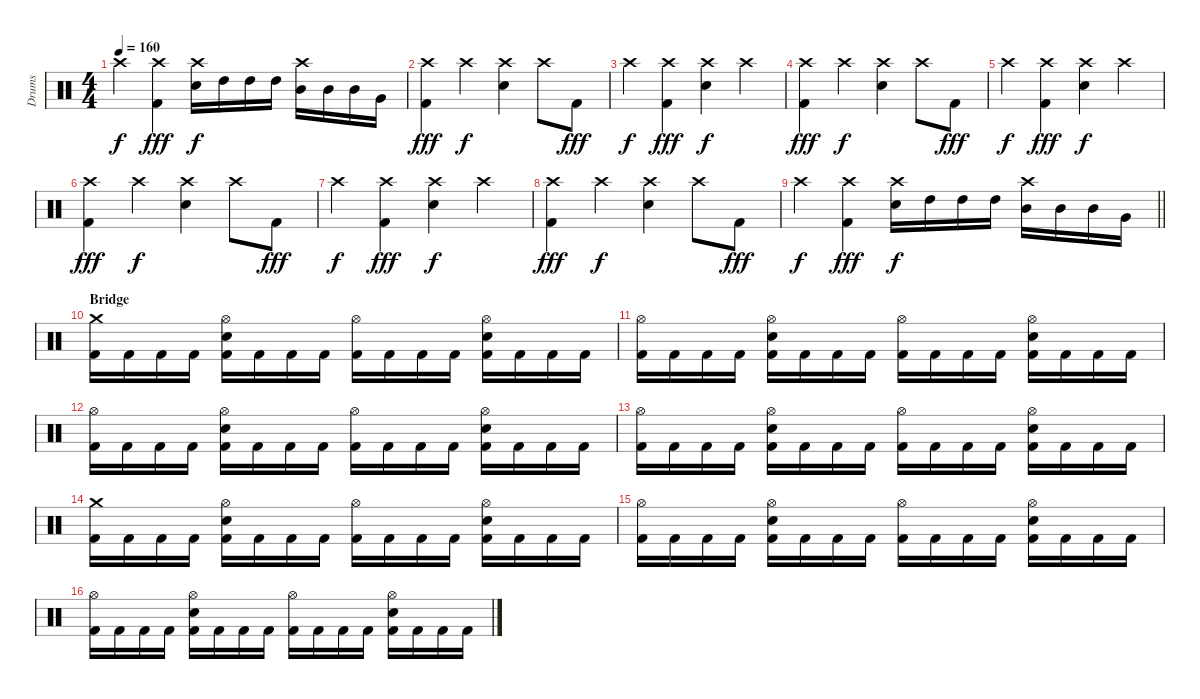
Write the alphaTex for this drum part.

\track ("Drums" "Drums") {instrument percussion}
\staff {score}
\articulation defaults
\ts (4 4)
\tempo 160
\clef neutral
\ks c "Crash high (hit)".4{dy f}
("Crash high (hit)" "Kick (hit) 2").4{dy fff} ("Crash high (hit)" "Electric Snare (hit)").16{dy f} "High Tom (hit)".16 "High Tom (hit)".16 "High Tom (hit)".16 ("Crash high (hit)" "Mid Tom (hit)").16 "Mid Tom (hit)".16 "Mid Tom (hit)".16 "Very Low Tom (hit)".16 |
("Crash high (hit)" "Kick (hit) 2").4{dy fff} "Crash high (hit)".4{dy f} ("Crash high (hit)" "Electric Snare (hit)").4 "Crash high (hit)".8 "Kick (hit) 2".8{dy fff} |
"Crash high (hit)".4{dy f} ("Crash high (hit)" "Kick (hit) 2").4{dy fff} ("Crash high (hit)" "Electric Snare (hit)").4{dy f} "Crash high (hit)".4 |
("Crash high (hit)" "Kick (hit) 2").4{dy fff} "Crash high (hit)".4{dy f} ("Crash high (hit)" "Electric Snare (hit)").4 "Crash high (hit)".8 "Kick (hit) 2".8{dy fff} |
"Crash high (hit)".4{dy f} ("Crash high (hit)" "Kick (hit) 2").4{dy fff} ("Crash high (hit)" "Electric Snare (hit)").4{dy f} "Crash high (hit)".4 |
("Crash high (hit)" "Kick (hit) 2").4{dy fff} "Crash high (hit)".4{dy f} ("Crash high (hit)" "Electric Snare (hit)").4 "Crash high (hit)".8 "Kick (hit) 2".8{dy fff} |
"Crash high (hit)".4{dy f} ("Crash high (hit)" "Kick (hit) 2").4{dy fff} ("Crash high (hit)" "Electric Snare (hit)").4{dy f} "Crash high (hit)".4 |
("Crash high (hit)" "Kick (hit) 2").4{dy fff} "Crash high (hit)".4{dy f} ("Crash high (hit)" "Electric Snare (hit)").4 "Crash high (hit)".8 "Kick (hit) 2".8{dy fff} |
\barLineRight lightlight "Crash high (hit)".4{dy f}
("Crash high (hit)" "Kick (hit) 2").4{dy fff} ("Crash high (hit)" "Electric Snare (hit)").16{dy f} "High Tom (hit)".16 "High Tom (hit)".16 "High Tom (hit)".16 ("Crash high (hit)" "Mid Tom (hit)").16 "Mid Tom (hit)".16 "Mid Tom (hit)".16 "Very Low Tom (hit)".16 |
\section ("" "Bridge")
("Kick (hit) 2" "Crash medium (hit)").16 "Kick (hit) 2".16 "Kick (hit) 2".16 "Kick (hit) 2".16 ("Kick (hit) 2" "Electric Snare (hit)" "Hi-Hat (open)").16 "Kick (hit) 2".16 "Kick (hit) 2".16 "Kick (hit) 2".16 ("Kick (hit) 2" "Hi-Hat (open)").16 "Kick (hit) 2".16 "Kick (hit) 2".16 "Kick (hit) 2".16 ("Kick (hit) 2" "Electric Snare (hit)" "Hi-Hat (open)").16 "Kick (hit) 2".16 "Kick (hit) 2".16 "Kick (hit) 2".16 |
("Kick (hit) 2" "Hi-Hat (open)").16 "Kick (hit) 2".16 "Kick (hit) 2".16 "Kick (hit) 2".16 ("Kick (hit) 2" "Electric Snare (hit)" "Hi-Hat (open)").16 "Kick (hit) 2".16 "Kick (hit) 2".16 "Kick (hit) 2".16 ("Kick (hit) 2" "Hi-Hat (open)").16 "Kick (hit) 2".16 "Kick (hit) 2".16 "Kick (hit) 2".16 ("Kick (hit) 2" "Electric Snare (hit)" "Hi-Hat (open)").16 "Kick (hit) 2".16 "Kick (hit) 2".16 "Kick (hit) 2".16 |
("Kick (hit) 2" "Hi-Hat (open)").16 "Kick (hit) 2".16 "Kick (hit) 2".16 "Kick (hit) 2".16 ("Kick (hit) 2" "Electric Snare (hit)" "Hi-Hat (open)").16 "Kick (hit) 2".16 "Kick (hit) 2".16 "Kick (hit) 2".16 ("Kick (hit) 2" "Hi-Hat (open)").16 "Kick (hit) 2".16 "Kick (hit) 2".16 "Kick (hit) 2".16 ("Kick (hit) 2" "Electric Snare (hit)" "Hi-Hat (open)").16 "Kick (hit) 2".16 "Kick (hit) 2".16 "Kick (hit) 2".16 |
("Kick (hit) 2" "Hi-Hat (open)").16 "Kick (hit) 2".16 "Kick (hit) 2".16 "Kick (hit) 2".16 ("Kick (hit) 2" "Electric Snare (hit)" "Hi-Hat (open)").16 "Kick (hit) 2".16 "Kick (hit) 2".16 "Kick (hit) 2".16 ("Kick (hit) 2" "Hi-Hat (open)").16 "Kick (hit) 2".16 "Kick (hit) 2".16 "Kick (hit) 2".16 ("Kick (hit) 2" "Electric Snare (hit)" "Hi-Hat (open)").16 "Kick (hit) 2".16 "Kick (hit) 2".16 "Kick (hit) 2".16 |
("Kick (hit) 2" "Crash medium (hit)").16 "Kick (hit) 2".16 "Kick (hit) 2".16 "Kick (hit) 2".16 ("Kick (hit) 2" "Electric Snare (hit)" "Hi-Hat (open)").16 "Kick (hit) 2".16 "Kick (hit) 2".16 "Kick (hit) 2".16 ("Kick (hit) 2" "Hi-Hat (open)").16 "Kick (hit) 2".16 "Kick (hit) 2".16 "Kick (hit) 2".16 ("Kick (hit) 2" "Electric Snare (hit)" "Hi-Hat (open)").16 "Kick (hit) 2".16 "Kick (hit) 2".16 "Kick (hit) 2".16 |
("Kick (hit) 2" "Hi-Hat (open)").16 "Kick (hit) 2".16 "Kick (hit) 2".16 "Kick (hit) 2".16 ("Kick (hit) 2" "Electric Snare (hit)" "Hi-Hat (open)").16 "Kick (hit) 2".16 "Kick (hit) 2".16 "Kick (hit) 2".16 ("Kick (hit) 2" "Hi-Hat (open)").16 "Kick (hit) 2".16 "Kick (hit) 2".16 "Kick (hit) 2".16 ("Kick (hit) 2" "Electric Snare (hit)" "Hi-Hat (open)").16 "Kick (hit) 2".16 "Kick (hit) 2".16 "Kick (hit) 2".16 |
("Kick (hit) 2" "Hi-Hat (open)").16 "Kick (hit) 2".16 "Kick (hit) 2".16 "Kick (hit) 2".16 ("Kick (hit) 2" "Electric Snare (hit)" "Hi-Hat (open)").16 "Kick (hit) 2".16 "Kick (hit) 2".16 "Kick (hit) 2".16 ("Kick (hit) 2" "Hi-Hat (open)").16 "Kick (hit) 2".16 "Kick (hit) 2".16 "Kick (hit) 2".16 ("Kick (hit) 2" "Electric Snare (hit)" "Hi-Hat (open)").16 "Kick (hit) 2".16 "Kick (hit) 2".16 "Kick (hit) 2".16
